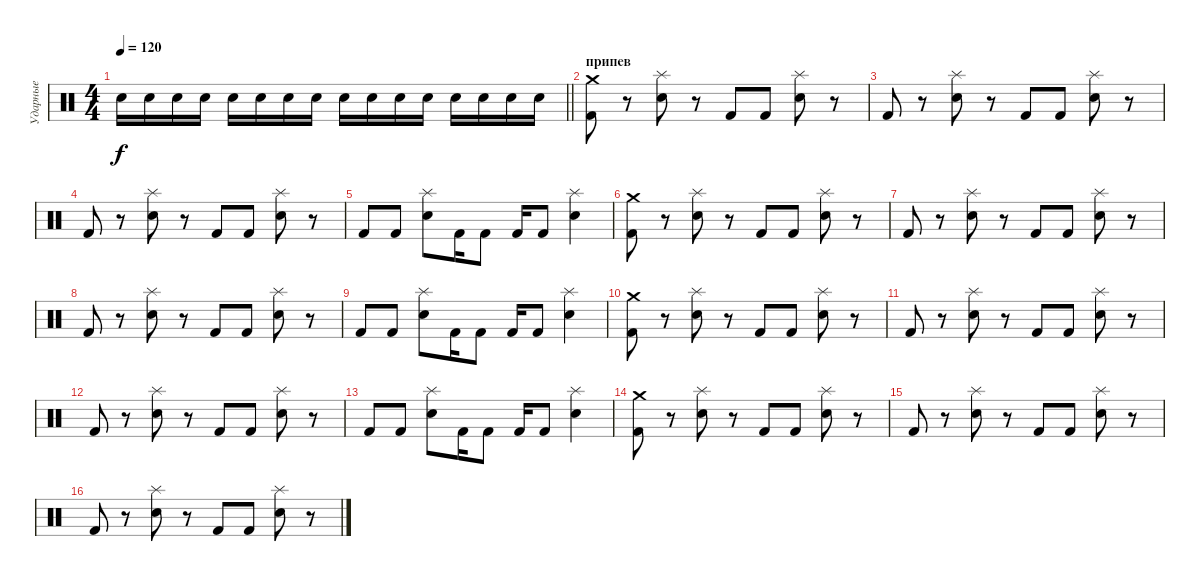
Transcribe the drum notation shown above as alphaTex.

\track ("Ударные" "Ударные") {instrument percussion}
\staff {score}
\articulation defaults
\ts (4 4)
\tempo 120
\clef neutral
\barLineRight lightlight
\ks c "Snare (hit) 2".16{dy f} "Snare (hit) 2".16 "Snare (hit) 2".16 "Snare (hit) 2".16 "Snare (hit) 2".16 "Snare (hit) 2".16 "Snare (hit) 2".16 "Snare (hit) 2".16 "Snare (hit) 2".16 "Snare (hit) 2".16 "Snare (hit) 2".16 "Snare (hit) 2".16 "Snare (hit) 2".16 "Snare (hit) 2".16 "Snare (hit) 2".16 "Snare (hit) 2".16
|
\section ("" "припев")
("Kick (hit) 2" "Crash medium (hit)").8 r.8 ("Electric Snare (hit)" "Splash (hit)").8 r.8 "Kick (hit) 2".8 "Kick (hit) 2".8 ("Electric Snare (hit)" "Splash (hit)").8 r.8 |
"Kick (hit) 2".8 r.8 ("Electric Snare (hit)" "Splash (hit)").8 r.8 "Kick (hit) 2".8 "Kick (hit) 2".8 ("Electric Snare (hit)" "Splash (hit)").8 r.8 |
"Kick (hit) 2".8 r.8 ("Electric Snare (hit)" "Splash (hit)").8 r.8 "Kick (hit) 2".8 "Kick (hit) 2".8 ("Electric Snare (hit)" "Splash (hit)").8 r.8 |
"Kick (hit) 2".8 "Kick (hit) 2".8 ("Electric Snare (hit)" "Splash (hit)").8 "Kick (hit) 2".16 "Kick (hit) 2".8 "Kick (hit) 2".16 "Kick (hit) 2".8 ("Electric Snare (hit)" "Splash (hit)").4 |
("Kick (hit) 2" "Crash medium (hit)").8 r.8 ("Electric Snare (hit)" "Splash (hit)").8 r.8 "Kick (hit) 2".8 "Kick (hit) 2".8 ("Electric Snare (hit)" "Splash (hit)").8 r.8 |
"Kick (hit) 2".8 r.8 ("Electric Snare (hit)" "Splash (hit)").8 r.8 "Kick (hit) 2".8 "Kick (hit) 2".8 ("Electric Snare (hit)" "Splash (hit)").8 r.8 |
"Kick (hit) 2".8 r.8 ("Electric Snare (hit)" "Splash (hit)").8 r.8 "Kick (hit) 2".8 "Kick (hit) 2".8 ("Electric Snare (hit)" "Splash (hit)").8 r.8 |
"Kick (hit) 2".8 "Kick (hit) 2".8 ("Electric Snare (hit)" "Splash (hit)").8 "Kick (hit) 2".16 "Kick (hit) 2".8 "Kick (hit) 2".16 "Kick (hit) 2".8 ("Electric Snare (hit)" "Splash (hit)").4 |
("Kick (hit) 2" "Crash medium (hit)").8 r.8 ("Electric Snare (hit)" "Splash (hit)").8 r.8 "Kick (hit) 2".8 "Kick (hit) 2".8 ("Electric Snare (hit)" "Splash (hit)").8 r.8 |
"Kick (hit) 2".8 r.8 ("Electric Snare (hit)" "Splash (hit)").8 r.8 "Kick (hit) 2".8 "Kick (hit) 2".8 ("Electric Snare (hit)" "Splash (hit)").8 r.8 |
"Kick (hit) 2".8 r.8 ("Electric Snare (hit)" "Splash (hit)").8 r.8 "Kick (hit) 2".8 "Kick (hit) 2".8 ("Electric Snare (hit)" "Splash (hit)").8 r.8 |
"Kick (hit) 2".8 "Kick (hit) 2".8 ("Electric Snare (hit)" "Splash (hit)").8 "Kick (hit) 2".16 "Kick (hit) 2".8 "Kick (hit) 2".16 "Kick (hit) 2".8 ("Electric Snare (hit)" "Splash (hit)").4 |
("Kick (hit) 2" "Crash medium (hit)").8 r.8 ("Electric Snare (hit)" "Splash (hit)").8 r.8 "Kick (hit) 2".8 "Kick (hit) 2".8 ("Electric Snare (hit)" "Splash (hit)").8 r.8 |
"Kick (hit) 2".8 r.8 ("Electric Snare (hit)" "Splash (hit)").8 r.8 "Kick (hit) 2".8 "Kick (hit) 2".8 ("Electric Snare (hit)" "Splash (hit)").8 r.8 |
"Kick (hit) 2".8 r.8 ("Electric Snare (hit)" "Splash (hit)").8 r.8 "Kick (hit) 2".8 "Kick (hit) 2".8 ("Electric Snare (hit)" "Splash (hit)").8 r.8
